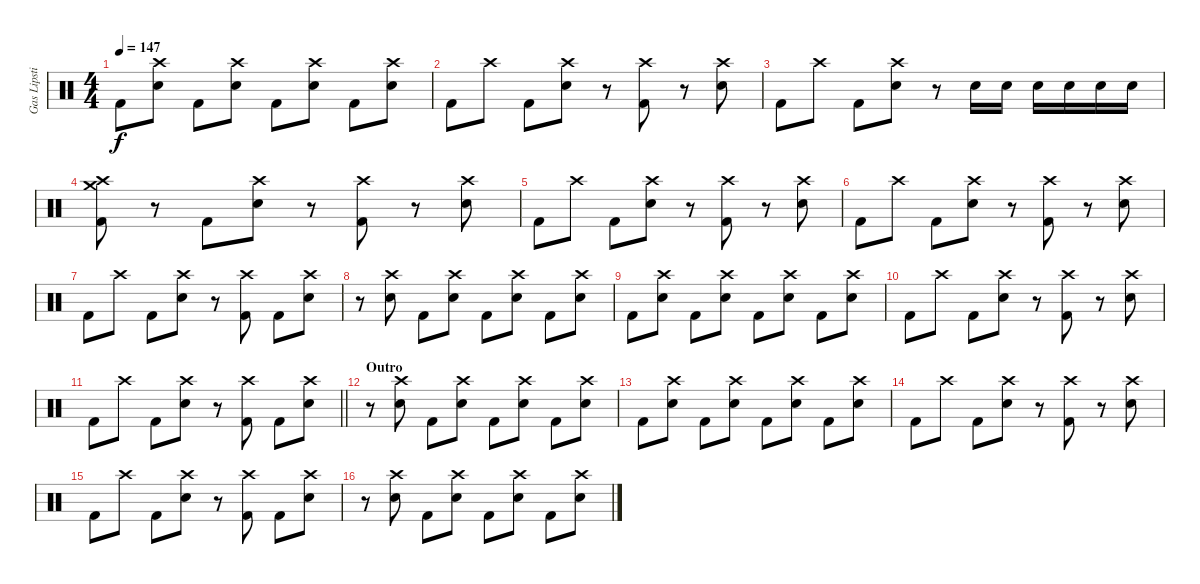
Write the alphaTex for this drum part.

\track ("Gas Lipstick (Drums)" "Gas Lipsti") {instrument percussion}
\staff {score}
\articulation defaults
\ts (4 4)
\tempo 147
\clef neutral
\ks c "Kick (hit) 2".8{dy f}
("Crash high (hit)" "Snare (hit) 2").8 "Kick (hit) 2".8 ("Crash high (hit)" "Snare (hit) 2").8 "Kick (hit) 2".8 ("Crash high (hit)" "Snare (hit) 2").8 "Kick (hit) 2".8 ("Crash high (hit)" "Snare (hit) 2").8 |
"Kick (hit) 2".8 "Crash high (hit)".8 "Kick (hit) 2".8 ("Crash high (hit)" "Snare (hit) 2").8 r.8 ("Crash high (hit)" "Kick (hit) 2").8 r.8 ("Crash high (hit)" "Snare (hit) 2").8 |
"Kick (hit) 2".8 "Crash high (hit)".8 "Kick (hit) 2".8 ("Crash high (hit)" "Snare (hit) 2").8 r.8 "Snare (hit) 2".16 "Snare (hit) 2".16 "Snare (hit) 2".16 "Snare (hit) 2".16 "Snare (hit) 2".16 "Snare (hit) 2".16 |
("Crash medium (hit)" "Crash high (hit)" "Kick (hit) 2").8 r.8 "Kick (hit) 2".8 ("Crash high (hit)" "Snare (hit) 2").8 r.8 ("Crash high (hit)" "Kick (hit) 2").8 r.8 ("Crash high (hit)" "Snare (hit) 2").8 |
"Kick (hit) 2".8 "Crash high (hit)".8 "Kick (hit) 2".8 ("Crash high (hit)" "Snare (hit) 2").8 r.8 ("Crash high (hit)" "Kick (hit) 2").8 r.8 ("Crash high (hit)" "Snare (hit) 2").8 |
"Kick (hit) 2".8 "Crash high (hit)".8 "Kick (hit) 2".8 ("Crash high (hit)" "Snare (hit) 2").8 r.8 ("Crash high (hit)" "Kick (hit) 2").8 r.8 ("Crash high (hit)" "Snare (hit) 2").8 |
"Kick (hit) 2".8 "Crash high (hit)".8 "Kick (hit) 2".8 ("Crash high (hit)" "Snare (hit) 2").8 r.8 ("Crash high (hit)" "Kick (hit) 2").8 "Kick (hit) 2".8 ("Crash high (hit)" "Snare (hit) 2").8 |
r.8 ("Crash high (hit)" "Snare (hit) 2").8 "Kick (hit) 2".8 ("Crash high (hit)" "Snare (hit) 2").8 "Kick (hit) 2".8 ("Crash high (hit)" "Snare (hit) 2").8 "Kick (hit) 2".8 ("Crash high (hit)" "Snare (hit) 2").8 |
"Kick (hit) 2".8 ("Crash high (hit)" "Snare (hit) 2").8 "Kick (hit) 2".8 ("Crash high (hit)" "Snare (hit) 2").8 "Kick (hit) 2".8 ("Crash high (hit)" "Snare (hit) 2").8 "Kick (hit) 2".8 ("Crash high (hit)" "Snare (hit) 2").8 |
"Kick (hit) 2".8 "Crash high (hit)".8 "Kick (hit) 2".8 ("Crash high (hit)" "Snare (hit) 2").8 r.8 ("Crash high (hit)" "Kick (hit) 2").8 r.8 ("Crash high (hit)" "Snare (hit) 2").8 |
\barLineRight lightlight "Kick (hit) 2".8 "Crash high (hit)".8 "Kick (hit) 2".8
("Crash high (hit)" "Snare (hit) 2").8 r.8 ("Crash high (hit)" "Kick (hit) 2").8 "Kick (hit) 2".8 ("Crash high (hit)" "Snare (hit) 2").8 |
\section ("" "Outro")
r.8 ("Crash high (hit)" "Snare (hit) 2").8 "Kick (hit) 2".8 ("Crash high (hit)" "Snare (hit) 2").8 "Kick (hit) 2".8 ("Crash high (hit)" "Snare (hit) 2").8 "Kick (hit) 2".8 ("Crash high (hit)" "Snare (hit) 2").8 |
"Kick (hit) 2".8 ("Crash high (hit)" "Snare (hit) 2").8 "Kick (hit) 2".8 ("Crash high (hit)" "Snare (hit) 2").8 "Kick (hit) 2".8 ("Crash high (hit)" "Snare (hit) 2").8 "Kick (hit) 2".8 ("Crash high (hit)" "Snare (hit) 2").8 |
"Kick (hit) 2".8 "Crash high (hit)".8 "Kick (hit) 2".8 ("Crash high (hit)" "Snare (hit) 2").8 r.8 ("Crash high (hit)" "Kick (hit) 2").8 r.8 ("Crash high (hit)" "Snare (hit) 2").8 |
"Kick (hit) 2".8 "Crash high (hit)".8 "Kick (hit) 2".8 ("Crash high (hit)" "Snare (hit) 2").8 r.8 ("Crash high (hit)" "Kick (hit) 2").8 "Kick (hit) 2".8 ("Crash high (hit)" "Snare (hit) 2").8 |
r.8 ("Crash high (hit)" "Snare (hit) 2").8 "Kick (hit) 2".8 ("Crash high (hit)" "Snare (hit) 2").8 "Kick (hit) 2".8 ("Crash high (hit)" "Snare (hit) 2").8 "Kick (hit) 2".8 ("Crash high (hit)" "Snare (hit) 2").8
